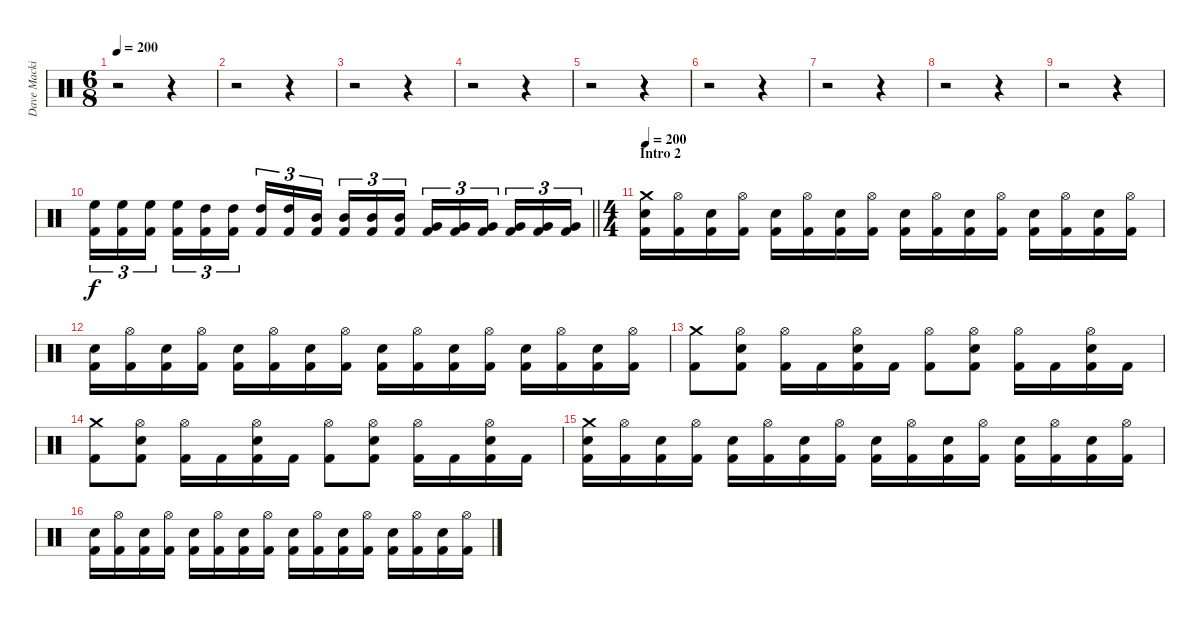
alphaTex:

\track ("Dave Mackintosh | Drums" "Dave Macki") {instrument percussion}
\staff {score}
\articulation defaults
\ts (6 8)
\tempo 200
\clef neutral
\ks c
r.2{dy f} r.4 |
r.2 r.4 |
r.2 r.4 |
r.2 r.4 |
r.2 r.4 |
r.2 r.4 |
r.2 r.4 |
r.2 r.4 |
r.2 r.4 |
\barLineRight lightlight
("High Floor Tom (hit)" "Kick (hit) 2").16{tu (3 2)} ("High Floor Tom (hit)" "Kick (hit) 2").16{tu (3 2)} ("High Floor Tom (hit)" "Kick (hit) 2").16{tu (3 2) beam splitsecondary} ("High Floor Tom (hit)" "Kick (hit) 2").16{tu (3 2)} ("High Tom (hit)" "Kick (hit) 2").16{tu (3 2)} ("High Tom (hit)" "Kick (hit) 2").16{tu (3 2) beam splitsecondary} ("High Tom (hit)" "Kick (hit) 2").16{tu (3 2)} ("High Tom (hit)" "Kick (hit) 2").16{tu (3 2)} ("Mid Tom (hit)" "Kick (hit) 2").16{tu (3 2)} ("Mid Tom (hit)" "Kick (hit) 2").16{tu (3 2)} ("Mid Tom (hit)" "Kick (hit) 2").16{tu (3 2)} ("Mid Tom (hit)" "Kick (hit) 2").16{tu (3 2) beam splitsecondary} ("Very Low Tom (hit)" "Kick (hit) 2").16{tu (3 2)} ("Very Low Tom (hit)" "Kick (hit) 2").16{tu (3 2)} ("Very Low Tom (hit)" "Kick (hit) 2").16{tu (3 2) beam splitsecondary} ("Very Low Tom (hit)" "Kick (hit) 2").16{tu (3 2)} ("Very Low Tom (hit)" "Kick (hit) 2").16{tu (3 2)} ("Very Low Tom (hit)" "Kick (hit) 2").16{tu (3 2)} |
\ts (4 4)
\section ("" "Intro 2")
\tempo 200
("Crash medium (hit)" "Snare (hit) 2" "Kick (hit) 2").16 ("Hi-Hat (open)" "Kick (hit) 2").16 ("Snare (hit) 2" "Kick (hit) 2").16 ("Hi-Hat (open)" "Kick (hit) 2").16 ("Snare (hit) 2" "Kick (hit) 2").16 ("Hi-Hat (open)" "Kick (hit) 2").16 ("Snare (hit) 2" "Kick (hit) 2").16 ("Hi-Hat (open)" "Kick (hit) 2").16 ("Snare (hit) 2" "Kick (hit) 2").16 ("Hi-Hat (open)" "Kick (hit) 2").16 ("Snare (hit) 2" "Kick (hit) 2").16 ("Hi-Hat (open)" "Kick (hit) 2").16 ("Snare (hit) 2" "Kick (hit) 2").16 ("Hi-Hat (open)" "Kick (hit) 2").16 ("Snare (hit) 2" "Kick (hit) 2").16 ("Hi-Hat (open)" "Kick (hit) 2").16 |
("Snare (hit) 2" "Kick (hit) 2").16 ("Hi-Hat (open)" "Kick (hit) 2").16 ("Snare (hit) 2" "Kick (hit) 2").16 ("Hi-Hat (open)" "Kick (hit) 2").16 ("Snare (hit) 2" "Kick (hit) 2").16 ("Hi-Hat (open)" "Kick (hit) 2").16 ("Snare (hit) 2" "Kick (hit) 2").16 ("Hi-Hat (open)" "Kick (hit) 2").16 ("Snare (hit) 2" "Kick (hit) 2").16 ("Hi-Hat (open)" "Kick (hit) 2").16 ("Snare (hit) 2" "Kick (hit) 2").16 ("Hi-Hat (open)" "Kick (hit) 2").16 ("Snare (hit) 2" "Kick (hit) 2").16 ("Hi-Hat (open)" "Kick (hit) 2").16 ("Snare (hit) 2" "Kick (hit) 2").16 ("Hi-Hat (open)" "Kick (hit) 2").16 |
("Crash medium (hit)" "Kick (hit) 2").8 ("Hi-Hat (open)" "Snare (hit) 2" "Kick (hit) 2").8 ("Hi-Hat (open)" "Kick (hit) 2").16 "Kick (hit) 2".16 ("Hi-Hat (open)" "Snare (hit) 2" "Kick (hit) 2").16 "Kick (hit) 2".16 ("Hi-Hat (open)" "Kick (hit) 2").8 ("Hi-Hat (open)" "Snare (hit) 2" "Kick (hit) 2").8 ("Hi-Hat (open)" "Kick (hit) 2").16 "Kick (hit) 2".16 ("Hi-Hat (open)" "Snare (hit) 2" "Kick (hit) 2").16 "Kick (hit) 2".16 |
("Crash medium (hit)" "Kick (hit) 2").8 ("Hi-Hat (open)" "Snare (hit) 2" "Kick (hit) 2").8 ("Hi-Hat (open)" "Kick (hit) 2").16 "Kick (hit) 2".16 ("Hi-Hat (open)" "Snare (hit) 2" "Kick (hit) 2").16 "Kick (hit) 2".16 ("Hi-Hat (open)" "Kick (hit) 2").8 ("Hi-Hat (open)" "Snare (hit) 2" "Kick (hit) 2").8 ("Hi-Hat (open)" "Kick (hit) 2").16 "Kick (hit) 2".16 ("Hi-Hat (open)" "Snare (hit) 2" "Kick (hit) 2").16 "Kick (hit) 2".16 |
("Crash medium (hit)" "Snare (hit) 2" "Kick (hit) 2").16 ("Hi-Hat (open)" "Kick (hit) 2").16 ("Snare (hit) 2" "Kick (hit) 2").16 ("Hi-Hat (open)" "Kick (hit) 2").16 ("Snare (hit) 2" "Kick (hit) 2").16 ("Hi-Hat (open)" "Kick (hit) 2").16 ("Snare (hit) 2" "Kick (hit) 2").16 ("Hi-Hat (open)" "Kick (hit) 2").16 ("Snare (hit) 2" "Kick (hit) 2").16 ("Hi-Hat (open)" "Kick (hit) 2").16 ("Snare (hit) 2" "Kick (hit) 2").16 ("Hi-Hat (open)" "Kick (hit) 2").16 ("Snare (hit) 2" "Kick (hit) 2").16 ("Hi-Hat (open)" "Kick (hit) 2").16 ("Snare (hit) 2" "Kick (hit) 2").16 ("Hi-Hat (open)" "Kick (hit) 2").16 |
("Snare (hit) 2" "Kick (hit) 2").16 ("Hi-Hat (open)" "Kick (hit) 2").16 ("Snare (hit) 2" "Kick (hit) 2").16 ("Hi-Hat (open)" "Kick (hit) 2").16 ("Snare (hit) 2" "Kick (hit) 2").16 ("Hi-Hat (open)" "Kick (hit) 2").16 ("Snare (hit) 2" "Kick (hit) 2").16 ("Hi-Hat (open)" "Kick (hit) 2").16 ("Snare (hit) 2" "Kick (hit) 2").16 ("Hi-Hat (open)" "Kick (hit) 2").16 ("Snare (hit) 2" "Kick (hit) 2").16 ("Hi-Hat (open)" "Kick (hit) 2").16 ("Snare (hit) 2" "Kick (hit) 2").16 ("Hi-Hat (open)" "Kick (hit) 2").16 ("Snare (hit) 2" "Kick (hit) 2").16 ("Hi-Hat (open)" "Kick (hit) 2").16
